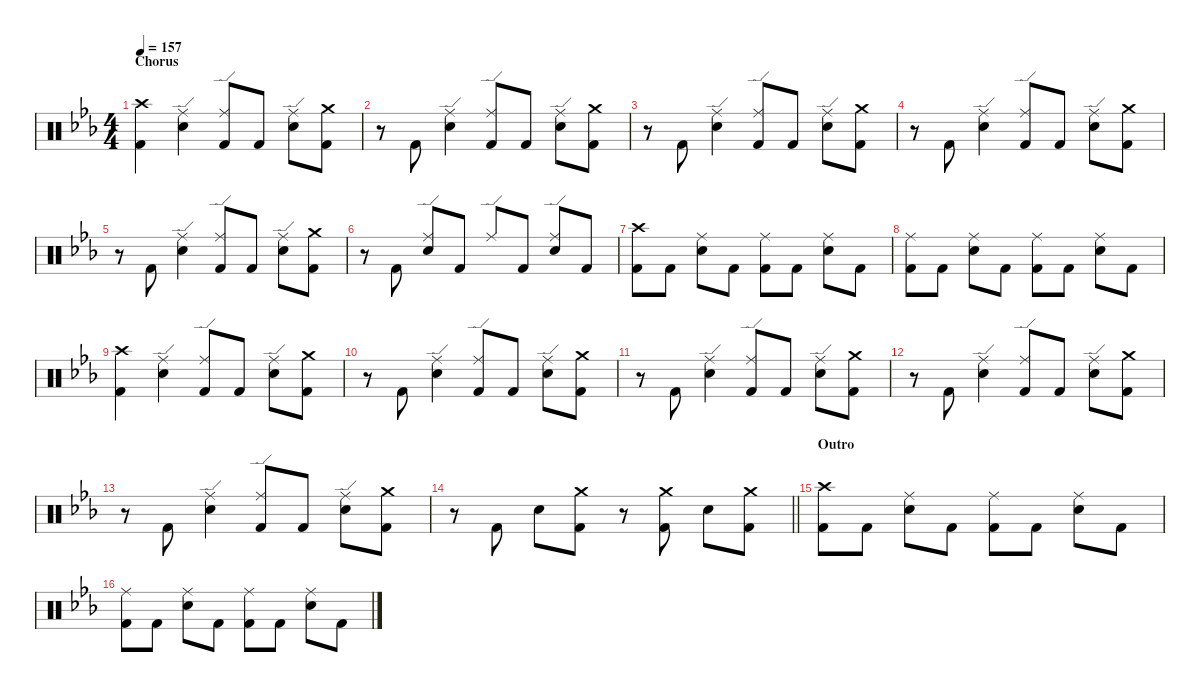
\defaultSystemsLayout 4
\hideDynamics
\bracketExtendMode nobrackets
\singleTrackTrackNamePolicy hidden
\multiTrackTrackNamePolicy hidden
\firstSystemTrackNameMode fullname
\firstSystemTrackNameOrientation horizontal
\otherSystemsTrackNameOrientation horizontal
\track ("Drums" "drm.") {instrument percussion}
\staff {score}
\articulation defaults
\ts (4 4)
\section ("" "Chorus")
\tempo 157
\clef neutral
\ks cminor
("Crash high (hit)"{acc forcenatural} "Kick (hit) 2"{acc forcenatural}).4{dy f beam Down} ("Ride (edge)"{acc forcenatural} "Snare (hit) 2"{acc forcenatural}).4{beam Down} ("Ride (edge)"{acc forcenatural} "Kick (hit) 2"{acc forcenatural}).8{beam Up} "Kick (hit) 2"{acc forcenatural}.8{beam Up} ("Ride (edge)"{acc forcenatural} "Snare (hit) 2"{acc forcenatural}).8{beam Down} ("Crash medium (hit)"{acc forcenatural} "Kick (hit) 2"{acc forcenatural}).8{beam Down} |
r.8{beam Down} "Kick (hit) 2"{acc forcenatural}.8{beam Up} ("Ride (edge)"{acc forcenatural} "Snare (hit) 2"{acc forcenatural}).4{beam Down} ("Ride (edge)"{acc forcenatural} "Kick (hit) 2"{acc forcenatural}).8{beam Up} "Kick (hit) 2"{acc forcenatural}.8{beam Up} ("Ride (edge)"{acc forcenatural} "Snare (hit) 2"{acc forcenatural}).8{beam Down} ("Crash medium (hit)"{acc forcenatural} "Kick (hit) 2"{acc forcenatural}).8{beam Down} |
r.8{beam Down} "Kick (hit) 2"{acc forcenatural}.8{beam Up} ("Ride (edge)"{acc forcenatural} "Snare (hit) 2"{acc forcenatural}).4{beam Down} ("Ride (edge)"{acc forcenatural} "Kick (hit) 2"{acc forcenatural}).8{beam Up} "Kick (hit) 2"{acc forcenatural}.8{beam Up} ("Ride (edge)"{acc forcenatural} "Snare (hit) 2"{acc forcenatural}).8{beam Down} ("Crash medium (hit)"{acc forcenatural} "Kick (hit) 2"{acc forcenatural}).8{beam Down} |
r.8{beam Down} "Kick (hit) 2"{acc forcenatural}.8{beam Up} ("Ride (edge)"{acc forcenatural} "Snare (hit) 2"{acc forcenatural}).4{beam Down} ("Ride (edge)"{acc forcenatural} "Kick (hit) 2"{acc forcenatural}).8{beam Up} "Kick (hit) 2"{acc forcenatural}.8{beam Up} ("Ride (edge)"{acc forcenatural} "Snare (hit) 2"{acc forcenatural}).8{beam Down} ("Crash medium (hit)"{acc forcenatural} "Kick (hit) 2"{acc forcenatural}).8{beam Down} |
r.8{beam Down} "Kick (hit) 2"{acc forcenatural}.8{beam Up} ("Ride (edge)"{acc forcenatural} "Snare (hit) 2"{acc forcenatural}).4{beam Down} ("Ride (edge)"{acc forcenatural} "Kick (hit) 2"{acc forcenatural}).8{beam Up} "Kick (hit) 2"{acc forcenatural}.8{beam Up} ("Ride (edge)"{acc forcenatural} "Snare (hit) 2"{acc forcenatural}).8{beam Down} ("Crash medium (hit)"{acc forcenatural} "Kick (hit) 2"{acc forcenatural}).8{beam Down} |
r.8{beam Down} "Kick (hit) 2"{acc forcenatural}.8{beam Up} ("Ride (edge)"{acc forcenatural} "Snare (hit) 2"{acc forcenatural}).8{beam Up} "Kick (hit) 2"{acc forcenatural}.8{beam Up} "Ride (edge)"{acc forcenatural}.8{beam Up} "Kick (hit) 2"{acc forcenatural}.8{beam Up} ("Ride (edge)"{acc forcenatural} "Snare (hit) 2"{acc forcenatural}).8{beam Up} "Kick (hit) 2"{acc forcenatural}.8{beam Up} |
("Crash high (hit)"{acc forcenatural} "Kick (hit) 2"{acc forcenatural}).8{beam Down} "Kick (hit) 2"{acc forcenatural}.8{beam Down} ("Ride (middle)"{acc forcenatural} "Snare (hit) 2"{acc forcenatural}).8{beam Down} "Kick (hit) 2"{acc forcenatural}.8{beam Down} ("Ride (middle)"{acc forcenatural} "Kick (hit) 2"{acc forcenatural}).8{beam Down} "Kick (hit) 2"{acc forcenatural}.8{beam Down} ("Ride (middle)"{acc forcenatural} "Snare (hit) 2"{acc forcenatural}).8{beam Down} "Kick (hit) 2"{acc forcenatural}.8{beam Down} |
("Ride (middle)"{acc forcenatural} "Kick (hit) 2"{acc forcenatural}).8{beam Down} "Kick (hit) 2"{acc forcenatural}.8{beam Down} ("Ride (middle)"{acc forcenatural} "Snare (hit) 2"{acc forcenatural}).8{beam Down} "Kick (hit) 2"{acc forcenatural}.8{beam Down} ("Ride (middle)"{acc forcenatural} "Kick (hit) 2"{acc forcenatural}).8{beam Down} "Kick (hit) 2"{acc forcenatural}.8{beam Down} ("Ride (middle)"{acc forcenatural} "Snare (hit) 2"{acc forcenatural}).8{beam Down} "Kick (hit) 2"{acc forcenatural}.8{beam Down} |
("Crash high (hit)"{acc forcenatural} "Kick (hit) 2"{acc forcenatural}).4{beam Down} ("Ride (edge)"{acc forcenatural} "Snare (hit) 2"{acc forcenatural}).4{beam Down} ("Ride (edge)"{acc forcenatural} "Kick (hit) 2"{acc forcenatural}).8{beam Up} "Kick (hit) 2"{acc forcenatural}.8{beam Up} ("Ride (edge)"{acc forcenatural} "Snare (hit) 2"{acc forcenatural}).8{beam Down} ("Crash medium (hit)"{acc forcenatural} "Kick (hit) 2"{acc forcenatural}).8{beam Down} |
r.8{beam Down} "Kick (hit) 2"{acc forcenatural}.8{beam Up} ("Ride (edge)"{acc forcenatural} "Snare (hit) 2"{acc forcenatural}).4{beam Down} ("Ride (edge)"{acc forcenatural} "Kick (hit) 2"{acc forcenatural}).8{beam Up} "Kick (hit) 2"{acc forcenatural}.8{beam Up} ("Ride (edge)"{acc forcenatural} "Snare (hit) 2"{acc forcenatural}).8{beam Down} ("Crash medium (hit)"{acc forcenatural} "Kick (hit) 2"{acc forcenatural}).8{beam Down} |
r.8{beam Down} "Kick (hit) 2"{acc forcenatural}.8{beam Up} ("Ride (edge)"{acc forcenatural} "Snare (hit) 2"{acc forcenatural}).4{beam Down} ("Ride (edge)"{acc forcenatural} "Kick (hit) 2"{acc forcenatural}).8{beam Up} "Kick (hit) 2"{acc forcenatural}.8{beam Up} ("Ride (edge)"{acc forcenatural} "Snare (hit) 2"{acc forcenatural}).8{beam Down} ("Crash medium (hit)"{acc forcenatural} "Kick (hit) 2"{acc forcenatural}).8{beam Down} |
r.8{beam Down} "Kick (hit) 2"{acc forcenatural}.8{beam Up} ("Ride (edge)"{acc forcenatural} "Snare (hit) 2"{acc forcenatural}).4{beam Down} ("Ride (edge)"{acc forcenatural} "Kick (hit) 2"{acc forcenatural}).8{beam Up} "Kick (hit) 2"{acc forcenatural}.8{beam Up} ("Ride (edge)"{acc forcenatural} "Snare (hit) 2"{acc forcenatural}).8{beam Down} ("Crash medium (hit)"{acc forcenatural} "Kick (hit) 2"{acc forcenatural}).8{beam Down} |
r.8{beam Down} "Kick (hit) 2"{acc forcenatural}.8{beam Up} ("Ride (edge)"{acc forcenatural} "Snare (hit) 2"{acc forcenatural}).4{beam Down} ("Ride (edge)"{acc forcenatural} "Kick (hit) 2"{acc forcenatural}).8{beam Up} "Kick (hit) 2"{acc forcenatural}.8{beam Up} ("Ride (edge)"{acc forcenatural} "Snare (hit) 2"{acc forcenatural}).8{beam Down} ("Crash medium (hit)"{acc forcenatural} "Kick (hit) 2"{acc forcenatural}).8{beam Down} |
\barLineRight lightlight
r.8{beam Down} "Kick (hit) 2"{acc forcenatural}.8{beam Up} "Snare (hit) 2"{acc forcenatural}.8{beam Down} ("Crash medium (hit)"{acc forcenatural} "Kick (hit) 2"{acc forcenatural}).8{dy mf beam Down} r.8{beam Down} ("Crash medium (hit)"{acc forcenatural} "Kick (hit) 2"{acc forcenatural}).8{beam Down} "Snare (hit) 2"{acc forcenatural}.8{dy f beam Down} ("Crash medium (hit)"{acc forcenatural} "Kick (hit) 2"{acc forcenatural}).8{dy mf beam Down} |
\section ("" "Outro")
("Crash high (hit)"{acc forcenatural} "Kick (hit) 2"{acc forcenatural}).8{dy f beam Down} "Kick (hit) 2"{acc forcenatural}.8{beam Down} ("Ride (middle)"{acc forcenatural} "Snare (hit) 2"{acc forcenatural}).8{beam Down} "Kick (hit) 2"{acc forcenatural}.8{beam Down} ("Ride (middle)"{acc forcenatural} "Kick (hit) 2"{acc forcenatural}).8{beam Down} "Kick (hit) 2"{acc forcenatural}.8{beam Down} ("Ride (middle)"{acc forcenatural} "Snare (hit) 2"{acc forcenatural}).8{beam Down} "Kick (hit) 2"{acc forcenatural}.8{beam Down} |
("Ride (middle)"{acc forcenatural} "Kick (hit) 2"{acc forcenatural}).8{beam Down} "Kick (hit) 2"{acc forcenatural}.8{beam Down} ("Ride (middle)"{acc forcenatural} "Snare (hit) 2"{acc forcenatural}).8{beam Down} "Kick (hit) 2"{acc forcenatural}.8{beam Down} ("Ride (middle)"{acc forcenatural} "Kick (hit) 2"{acc forcenatural}).8{beam Down} "Kick (hit) 2"{acc forcenatural}.8{beam Down} ("Ride (middle)"{acc forcenatural} "Snare (hit) 2"{acc forcenatural}).8{beam Down} "Kick (hit) 2"{acc forcenatural}.8{beam Down}
